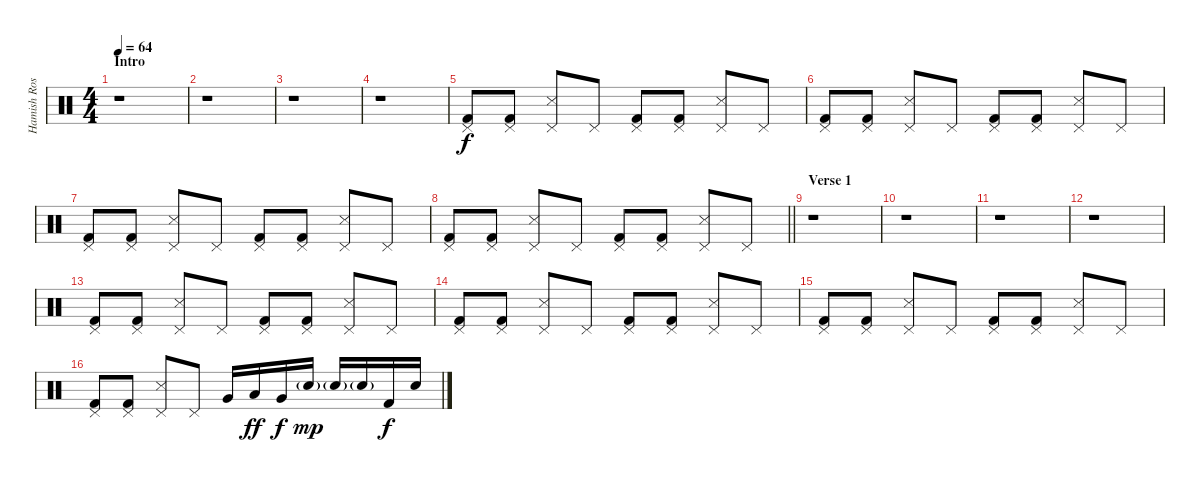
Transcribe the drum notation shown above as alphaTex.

\track ("Hamish Rosser" "Hamish Ros") {instrument percussion}
\staff {score}
\articulation defaults
\ts (4 4)
\section ("" "Intro")
\tempo 64
\clef neutral
\ks c
r.1{dy f} |
r.1 |
r.1 |
r.1 |
("Pedal Hi-Hat (hit)" "Kick (hit) 2").8 ("Pedal Hi-Hat (hit)" "Kick (hit) 2").8 ("Pedal Hi-Hat (hit)" "Snare (side stick) 3").8 "Pedal Hi-Hat (hit)".8 ("Pedal Hi-Hat (hit)" "Kick (hit) 2").8 ("Pedal Hi-Hat (hit)" "Kick (hit) 2").8 ("Pedal Hi-Hat (hit)" "Snare (side stick) 3").8 "Pedal Hi-Hat (hit)".8 |
("Pedal Hi-Hat (hit)" "Kick (hit) 2").8 ("Pedal Hi-Hat (hit)" "Kick (hit) 2").8 ("Pedal Hi-Hat (hit)" "Snare (side stick) 3").8 "Pedal Hi-Hat (hit)".8 ("Pedal Hi-Hat (hit)" "Kick (hit) 2").8 ("Pedal Hi-Hat (hit)" "Kick (hit) 2").8 ("Pedal Hi-Hat (hit)" "Snare (side stick) 3").8 "Pedal Hi-Hat (hit)".8 |
("Pedal Hi-Hat (hit)" "Kick (hit) 2").8 ("Pedal Hi-Hat (hit)" "Kick (hit) 2").8 ("Pedal Hi-Hat (hit)" "Snare (side stick) 3").8 "Pedal Hi-Hat (hit)".8 ("Pedal Hi-Hat (hit)" "Kick (hit) 2").8 ("Pedal Hi-Hat (hit)" "Kick (hit) 2").8 ("Pedal Hi-Hat (hit)" "Snare (side stick) 3").8 "Pedal Hi-Hat (hit)".8 |
\barLineRight lightlight
("Pedal Hi-Hat (hit)" "Kick (hit) 2").8 ("Pedal Hi-Hat (hit)" "Kick (hit) 2").8 ("Pedal Hi-Hat (hit)" "Snare (side stick) 3").8 "Pedal Hi-Hat (hit)".8 ("Pedal Hi-Hat (hit)" "Kick (hit) 2").8 ("Pedal Hi-Hat (hit)" "Kick (hit) 2").8 ("Pedal Hi-Hat (hit)" "Snare (side stick) 3").8 "Pedal Hi-Hat (hit)".8 |
\section ("" "Verse 1")
r.1 |
r.1 |
r.1 |
r.1 |
("Pedal Hi-Hat (hit)" "Kick (hit) 2").8 ("Pedal Hi-Hat (hit)" "Kick (hit) 2").8 ("Pedal Hi-Hat (hit)" "Snare (side stick) 3").8 "Pedal Hi-Hat (hit)".8 ("Pedal Hi-Hat (hit)" "Kick (hit) 2").8 ("Pedal Hi-Hat (hit)" "Kick (hit) 2").8 ("Pedal Hi-Hat (hit)" "Snare (side stick) 3").8 "Pedal Hi-Hat (hit)".8 |
("Pedal Hi-Hat (hit)" "Kick (hit) 2").8 ("Pedal Hi-Hat (hit)" "Kick (hit) 2").8 ("Pedal Hi-Hat (hit)" "Snare (side stick) 3").8 "Pedal Hi-Hat (hit)".8 ("Pedal Hi-Hat (hit)" "Kick (hit) 2").8 ("Pedal Hi-Hat (hit)" "Kick (hit) 2").8 ("Pedal Hi-Hat (hit)" "Snare (side stick) 3").8 "Pedal Hi-Hat (hit)".8 |
("Pedal Hi-Hat (hit)" "Kick (hit) 2").8 ("Pedal Hi-Hat (hit)" "Kick (hit) 2").8 ("Pedal Hi-Hat (hit)" "Snare (side stick) 3").8 "Pedal Hi-Hat (hit)".8 ("Pedal Hi-Hat (hit)" "Kick (hit) 2").8 ("Pedal Hi-Hat (hit)" "Kick (hit) 2").8 ("Pedal Hi-Hat (hit)" "Snare (side stick) 3").8 "Pedal Hi-Hat (hit)".8 |
("Pedal Hi-Hat (hit)" "Kick (hit) 2").8 ("Pedal Hi-Hat (hit)" "Kick (hit) 2").8 ("Pedal Hi-Hat (hit)" "Snare (side stick) 3").8 "Pedal Hi-Hat (hit)".8 "Very Low Tom (hit)".16 "Low Tom (hit)".16{dy ff} "Very Low Tom (hit)".16{dy f} "Electric Snare (hit)"{g}.16{dy mp} "Electric Snare (hit)"{g}.16 "Electric Snare (hit)"{g}.16 "Kick (hit) 2".16{dy f} "Electric Snare (hit)".16
